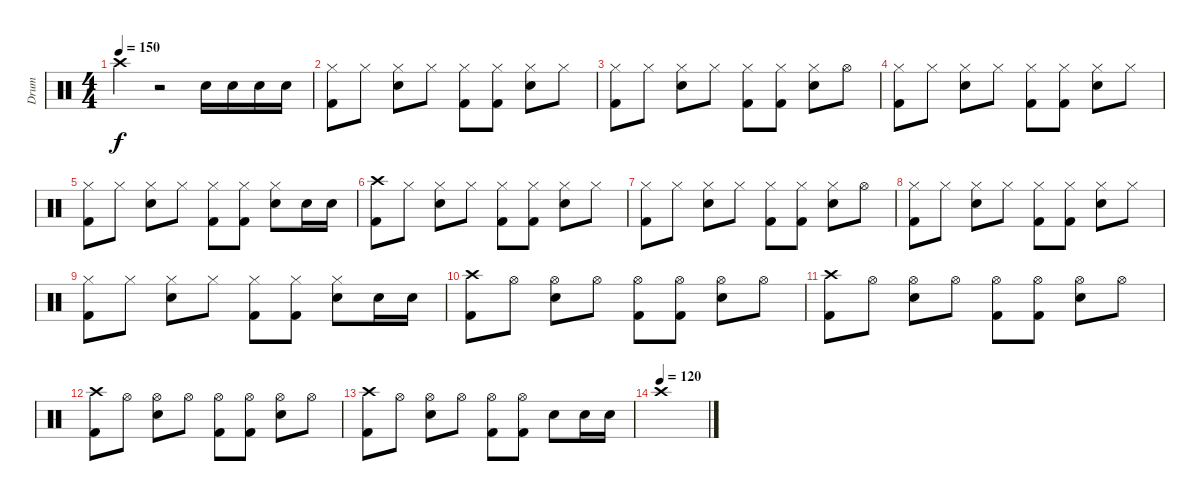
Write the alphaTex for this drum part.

\track ("Drum" "Drum") {instrument percussion}
\staff {score}
\articulation defaults
\ts (4 4)
\tempo 150
\clef neutral
\ks c "Crash high (hit)".4{dy f}
r.2 "Electric Snare (hit)".16{volume 14} "Electric Snare (hit)".16{volume 14} "Electric Snare (hit)".16{volume 16} "Electric Snare (hit)".16{volume 16} |
("Hi-Hat (closed)" "Kick (hit) 2").8 "Hi-Hat (closed)".8 ("Hi-Hat (closed)" "Electric Snare (hit)").8 "Hi-Hat (closed)".8 ("Hi-Hat (closed)" "Kick (hit) 2").8 ("Hi-Hat (closed)" "Kick (hit) 2").8 ("Hi-Hat (closed)" "Electric Snare (hit)").8 "Hi-Hat (closed)".8 |
("Hi-Hat (closed)" "Kick (hit) 2").8 "Hi-Hat (closed)".8 ("Hi-Hat (closed)" "Electric Snare (hit)").8 "Hi-Hat (closed)".8 ("Hi-Hat (closed)" "Kick (hit) 2").8 ("Hi-Hat (closed)" "Kick (hit) 2").8 ("Hi-Hat (closed)" "Electric Snare (hit)").8 "Hi-Hat (open)".8 |
("Hi-Hat (closed)" "Kick (hit) 2").8 "Hi-Hat (closed)".8 ("Hi-Hat (closed)" "Electric Snare (hit)").8 "Hi-Hat (closed)".8 ("Hi-Hat (closed)" "Kick (hit) 2").8 ("Hi-Hat (closed)" "Kick (hit) 2").8 ("Hi-Hat (closed)" "Electric Snare (hit)").8 "Hi-Hat (closed)".8 |
("Hi-Hat (closed)" "Kick (hit) 2").8 "Hi-Hat (closed)".8 ("Hi-Hat (closed)" "Electric Snare (hit)").8 "Hi-Hat (closed)".8 ("Hi-Hat (closed)" "Kick (hit) 2").8 ("Hi-Hat (closed)" "Kick (hit) 2").8 ("Hi-Hat (closed)" "Electric Snare (hit)").8 "Electric Snare (hit)".16 "Electric Snare (hit)".16 |
("Crash high (hit)" "Kick (hit) 2").8 "Hi-Hat (closed)".8 ("Hi-Hat (closed)" "Electric Snare (hit)").8 "Hi-Hat (closed)".8 ("Hi-Hat (closed)" "Kick (hit) 2").8 ("Hi-Hat (closed)" "Kick (hit) 2").8 ("Hi-Hat (closed)" "Electric Snare (hit)").8 "Hi-Hat (closed)".8 |
("Hi-Hat (closed)" "Kick (hit) 2").8 "Hi-Hat (closed)".8 ("Hi-Hat (closed)" "Electric Snare (hit)").8 "Hi-Hat (closed)".8 ("Hi-Hat (closed)" "Kick (hit) 2").8 ("Hi-Hat (closed)" "Kick (hit) 2").8 ("Hi-Hat (closed)" "Electric Snare (hit)").8 "Hi-Hat (open)".8 |
("Hi-Hat (closed)" "Kick (hit) 2").8 "Hi-Hat (closed)".8 ("Hi-Hat (closed)" "Electric Snare (hit)").8 "Hi-Hat (closed)".8 ("Hi-Hat (closed)" "Kick (hit) 2").8 ("Hi-Hat (closed)" "Kick (hit) 2").8 ("Hi-Hat (closed)" "Electric Snare (hit)").8 "Hi-Hat (closed)".8 |
("Hi-Hat (closed)" "Kick (hit) 2").8 "Hi-Hat (closed)".8 ("Hi-Hat (closed)" "Electric Snare (hit)").8 "Hi-Hat (closed)".8 ("Hi-Hat (closed)" "Kick (hit) 2").8 ("Hi-Hat (closed)" "Kick (hit) 2").8 ("Hi-Hat (closed)" "Electric Snare (hit)").8 "Electric Snare (hit)".16 "Electric Snare (hit)".16 |
("Crash high (hit)" "Kick (hit) 2").8 "Hi-Hat (open)".8 ("Hi-Hat (open)" "Electric Snare (hit)").8 "Hi-Hat (open)".8 ("Hi-Hat (open)" "Kick (hit) 2").8 ("Hi-Hat (open)" "Kick (hit) 2").8 ("Hi-Hat (open)" "Electric Snare (hit)").8 "Hi-Hat (open)".8 |
("Crash high (hit)" "Kick (hit) 2").8 "Hi-Hat (open)".8 ("Hi-Hat (open)" "Electric Snare (hit)").8 "Hi-Hat (open)".8 ("Hi-Hat (open)" "Kick (hit) 2").8 ("Hi-Hat (open)" "Kick (hit) 2").8 ("Hi-Hat (open)" "Electric Snare (hit)").8 "Hi-Hat (open)".8 |
("Crash high (hit)" "Kick (hit) 2").8 "Hi-Hat (open)".8 ("Hi-Hat (open)" "Electric Snare (hit)").8 "Hi-Hat (open)".8 ("Hi-Hat (open)" "Kick (hit) 2").8 ("Hi-Hat (open)" "Kick (hit) 2").8 ("Hi-Hat (open)" "Electric Snare (hit)").8 "Hi-Hat (open)".8 |
("Crash high (hit)" "Kick (hit) 2").8 "Hi-Hat (open)".8 ("Hi-Hat (open)" "Electric Snare (hit)").8 "Hi-Hat (open)".8 ("Hi-Hat (open)" "Kick (hit) 2").8 ("Hi-Hat (open)" "Kick (hit) 2").8 "Electric Snare (hit)".8{volume 16} "Electric Snare (hit)".16{volume 16} "Electric Snare (hit)".16 |
\tempo (120)
"Crash high (hit)".1
